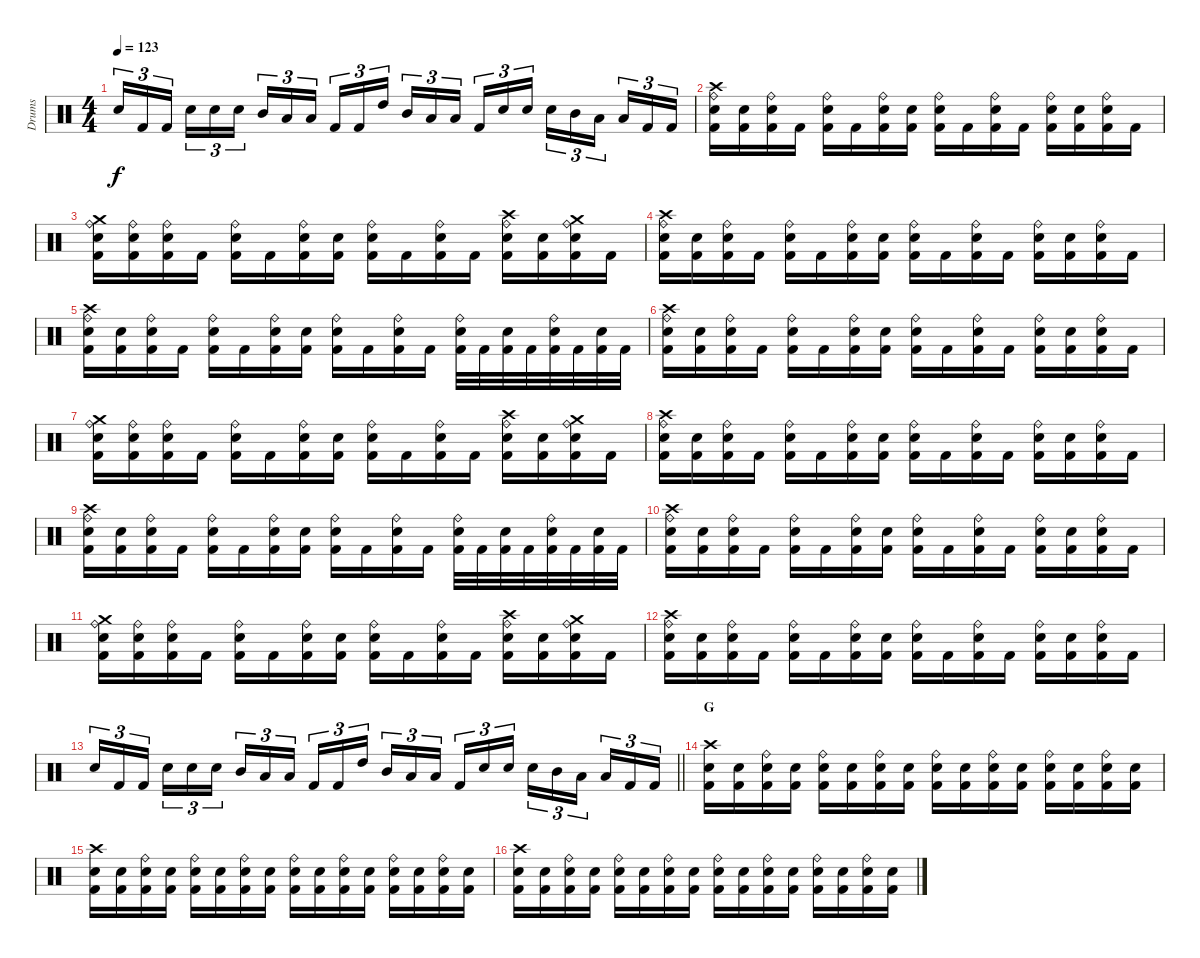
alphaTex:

\track ("Drums" "Drums") {instrument percussion}
\staff {score}
\articulation defaults
\ts (4 4)
\tempo 123
\clef neutral
\ks c "Snare (hit) 2".16{tu (3 2) dy f} "Kick (hit) 2".16{tu (3 2)} "Kick (hit) 2".16{tu (3 2) beam splitsecondary} "Snare (hit) 2".16{tu (3 2)} "Snare (hit) 2".16{tu (3 2)} "Snare (hit) 2".16{tu (3 2)} "Mid Tom (hit)".16{tu (3 2)} "Low Tom (hit)".16{tu (3 2)} "Low Floor Tom (hit)".16{tu (3 2) beam splitsecondary} "Kick (hit) 2".16{tu (3 2)} "Kick (hit) 2".16{tu (3 2)} "High Tom (hit)".16{tu (3 2)} "Mid Tom (hit)".16{tu (3 2)} "Low Tom (hit)".16{tu (3 2)} "Low Floor Tom (hit)".16{tu (3 2) beam splitsecondary} "Kick (hit) 2".16{tu (3 2)} "Snare (hit) 2".16{tu (3 2)} "Snare (hit) 2".16{tu (3 2)} "Snare (hit) 2".16{tu (3 2)} "Mid Tom (hit)".16{tu (3 2)} "Low Tom (hit)".16{tu (3 2) beam splitsecondary} "Low Floor Tom (hit)".16{tu (3 2)} "Kick (hit) 2".16{tu (3 2)} "Kick (hit) 2".16{tu (3 2)}
|
("Crash high (hit)" "Snare (hit) 2" "Ride (bell)" "Kick (hit) 2").16 ("Snare (hit) 2" "Kick (hit) 2").16 ("Snare (hit) 2" "Ride (bell)" "Kick (hit) 2").16 "Kick (hit) 2".16 ("Snare (hit) 2" "Ride (bell)" "Kick (hit) 2").16 "Kick (hit) 2".16 ("Snare (hit) 2" "Ride (bell)" "Kick (hit) 2").16 ("Snare (hit) 2" "Kick (hit) 2").16 ("Snare (hit) 2" "Ride (bell)" "Kick (hit) 2").16 "Kick (hit) 2".16 ("Snare (hit) 2" "Ride (bell)" "Kick (hit) 2").16 "Kick (hit) 2".16 ("Snare (hit) 2" "Ride (bell)" "Kick (hit) 2").16 ("Snare (hit) 2" "Kick (hit) 2").16 ("Snare (hit) 2" "Ride (bell)" "Kick (hit) 2").16 "Kick (hit) 2".16 |
("Crash medium (hit)" "Snare (hit) 2" "Ride (bell)" "Kick (hit) 2").16 ("Snare (hit) 2" "Ride (bell)" "Kick (hit) 2").16 ("Snare (hit) 2" "Ride (bell)" "Kick (hit) 2").16 "Kick (hit) 2".16 ("Snare (hit) 2" "Ride (bell)" "Kick (hit) 2").16 "Kick (hit) 2".16 ("Snare (hit) 2" "Ride (bell)" "Kick (hit) 2").16 ("Snare (hit) 2" "Kick (hit) 2").16 ("Snare (hit) 2" "Ride (bell)" "Kick (hit) 2").16 "Kick (hit) 2".16 ("Snare (hit) 2" "Ride (bell)" "Kick (hit) 2").16 "Kick (hit) 2".16 ("Crash high (hit)" "Snare (hit) 2" "Ride (bell)" "Kick (hit) 2").16 ("Snare (hit) 2" "Kick (hit) 2").16 ("Crash medium (hit)" "Snare (hit) 2" "Ride (bell)" "Kick (hit) 2").16 "Kick (hit) 2".16 |
("Crash high (hit)" "Snare (hit) 2" "Ride (bell)" "Kick (hit) 2").16 ("Snare (hit) 2" "Kick (hit) 2").16 ("Snare (hit) 2" "Ride (bell)" "Kick (hit) 2").16 "Kick (hit) 2".16 ("Snare (hit) 2" "Ride (bell)" "Kick (hit) 2").16 "Kick (hit) 2".16 ("Snare (hit) 2" "Ride (bell)" "Kick (hit) 2").16 ("Snare (hit) 2" "Kick (hit) 2").16 ("Snare (hit) 2" "Ride (bell)" "Kick (hit) 2").16 "Kick (hit) 2".16 ("Snare (hit) 2" "Ride (bell)" "Kick (hit) 2").16 "Kick (hit) 2".16 ("Snare (hit) 2" "Ride (bell)" "Kick (hit) 2").16 ("Snare (hit) 2" "Kick (hit) 2").16 ("Snare (hit) 2" "Ride (bell)" "Kick (hit) 2").16 "Kick (hit) 2".16 |
("Crash high (hit)" "Snare (hit) 2" "Ride (bell)" "Kick (hit) 2").16 ("Snare (hit) 2" "Kick (hit) 2").16 ("Snare (hit) 2" "Ride (bell)" "Kick (hit) 2").16 "Kick (hit) 2".16 ("Snare (hit) 2" "Ride (bell)" "Kick (hit) 2").16 "Kick (hit) 2".16 ("Snare (hit) 2" "Ride (bell)" "Kick (hit) 2").16 ("Snare (hit) 2" "Kick (hit) 2").16 ("Snare (hit) 2" "Ride (bell)" "Kick (hit) 2").16 "Kick (hit) 2".16 ("Snare (hit) 2" "Ride (bell)" "Kick (hit) 2").16 "Kick (hit) 2".16 ("Snare (hit) 2" "Ride (bell)" "Kick (hit) 2").32 "Kick (hit) 2".32 ("Snare (hit) 2" "Kick (hit) 2").32 "Kick (hit) 2".32 ("Snare (hit) 2" "Ride (bell)" "Kick (hit) 2").32 "Kick (hit) 2".32 ("Snare (hit) 2" "Kick (hit) 2").32 "Kick (hit) 2".32 |
("Crash high (hit)" "Snare (hit) 2" "Ride (bell)" "Kick (hit) 2").16 ("Snare (hit) 2" "Kick (hit) 2").16 ("Snare (hit) 2" "Ride (bell)" "Kick (hit) 2").16 "Kick (hit) 2".16 ("Snare (hit) 2" "Ride (bell)" "Kick (hit) 2").16 "Kick (hit) 2".16 ("Snare (hit) 2" "Ride (bell)" "Kick (hit) 2").16 ("Snare (hit) 2" "Kick (hit) 2").16 ("Snare (hit) 2" "Ride (bell)" "Kick (hit) 2").16 "Kick (hit) 2".16 ("Snare (hit) 2" "Ride (bell)" "Kick (hit) 2").16 "Kick (hit) 2".16 ("Snare (hit) 2" "Ride (bell)" "Kick (hit) 2").16 ("Snare (hit) 2" "Kick (hit) 2").16 ("Snare (hit) 2" "Ride (bell)" "Kick (hit) 2").16 "Kick (hit) 2".16 |
("Crash medium (hit)" "Snare (hit) 2" "Ride (bell)" "Kick (hit) 2").16 ("Snare (hit) 2" "Ride (bell)" "Kick (hit) 2").16 ("Snare (hit) 2" "Ride (bell)" "Kick (hit) 2").16 "Kick (hit) 2".16 ("Snare (hit) 2" "Ride (bell)" "Kick (hit) 2").16 "Kick (hit) 2".16 ("Snare (hit) 2" "Ride (bell)" "Kick (hit) 2").16 ("Snare (hit) 2" "Kick (hit) 2").16 ("Snare (hit) 2" "Ride (bell)" "Kick (hit) 2").16 "Kick (hit) 2".16 ("Snare (hit) 2" "Ride (bell)" "Kick (hit) 2").16 "Kick (hit) 2".16 ("Crash high (hit)" "Snare (hit) 2" "Ride (bell)" "Kick (hit) 2").16 ("Snare (hit) 2" "Kick (hit) 2").16 ("Crash medium (hit)" "Snare (hit) 2" "Ride (bell)" "Kick (hit) 2").16 "Kick (hit) 2".16 |
("Crash high (hit)" "Snare (hit) 2" "Ride (bell)" "Kick (hit) 2").16 ("Snare (hit) 2" "Kick (hit) 2").16 ("Snare (hit) 2" "Ride (bell)" "Kick (hit) 2").16 "Kick (hit) 2".16 ("Snare (hit) 2" "Ride (bell)" "Kick (hit) 2").16 "Kick (hit) 2".16 ("Snare (hit) 2" "Ride (bell)" "Kick (hit) 2").16 ("Snare (hit) 2" "Kick (hit) 2").16 ("Snare (hit) 2" "Ride (bell)" "Kick (hit) 2").16 "Kick (hit) 2".16 ("Snare (hit) 2" "Ride (bell)" "Kick (hit) 2").16 "Kick (hit) 2".16 ("Snare (hit) 2" "Ride (bell)" "Kick (hit) 2").16 ("Snare (hit) 2" "Kick (hit) 2").16 ("Snare (hit) 2" "Ride (bell)" "Kick (hit) 2").16 "Kick (hit) 2".16 |
("Crash high (hit)" "Snare (hit) 2" "Ride (bell)" "Kick (hit) 2").16 ("Snare (hit) 2" "Kick (hit) 2").16 ("Snare (hit) 2" "Ride (bell)" "Kick (hit) 2").16 "Kick (hit) 2".16 ("Snare (hit) 2" "Ride (bell)" "Kick (hit) 2").16 "Kick (hit) 2".16 ("Snare (hit) 2" "Ride (bell)" "Kick (hit) 2").16 ("Snare (hit) 2" "Kick (hit) 2").16 ("Snare (hit) 2" "Ride (bell)" "Kick (hit) 2").16 "Kick (hit) 2".16 ("Snare (hit) 2" "Ride (bell)" "Kick (hit) 2").16 "Kick (hit) 2".16 ("Snare (hit) 2" "Ride (bell)" "Kick (hit) 2").32 "Kick (hit) 2".32 ("Snare (hit) 2" "Kick (hit) 2").32 "Kick (hit) 2".32 ("Snare (hit) 2" "Ride (bell)" "Kick (hit) 2").32 "Kick (hit) 2".32 ("Snare (hit) 2" "Kick (hit) 2").32 "Kick (hit) 2".32 |
("Crash high (hit)" "Snare (hit) 2" "Ride (bell)" "Kick (hit) 2").16 ("Snare (hit) 2" "Kick (hit) 2").16 ("Snare (hit) 2" "Ride (bell)" "Kick (hit) 2").16 "Kick (hit) 2".16 ("Snare (hit) 2" "Ride (bell)" "Kick (hit) 2").16 "Kick (hit) 2".16 ("Snare (hit) 2" "Ride (bell)" "Kick (hit) 2").16 ("Snare (hit) 2" "Kick (hit) 2").16 ("Snare (hit) 2" "Ride (bell)" "Kick (hit) 2").16 "Kick (hit) 2".16 ("Snare (hit) 2" "Ride (bell)" "Kick (hit) 2").16 "Kick (hit) 2".16 ("Snare (hit) 2" "Ride (bell)" "Kick (hit) 2").16 ("Snare (hit) 2" "Kick (hit) 2").16 ("Snare (hit) 2" "Ride (bell)" "Kick (hit) 2").16 "Kick (hit) 2".16 |
("Crash medium (hit)" "Snare (hit) 2" "Ride (bell)" "Kick (hit) 2").16 ("Snare (hit) 2" "Ride (bell)" "Kick (hit) 2").16 ("Snare (hit) 2" "Ride (bell)" "Kick (hit) 2").16 "Kick (hit) 2".16 ("Snare (hit) 2" "Ride (bell)" "Kick (hit) 2").16 "Kick (hit) 2".16 ("Snare (hit) 2" "Ride (bell)" "Kick (hit) 2").16 ("Snare (hit) 2" "Kick (hit) 2").16 ("Snare (hit) 2" "Ride (bell)" "Kick (hit) 2").16 "Kick (hit) 2".16 ("Snare (hit) 2" "Ride (bell)" "Kick (hit) 2").16 "Kick (hit) 2".16 ("Crash high (hit)" "Snare (hit) 2" "Ride (bell)" "Kick (hit) 2").16 ("Snare (hit) 2" "Kick (hit) 2").16 ("Crash medium (hit)" "Snare (hit) 2" "Ride (bell)" "Kick (hit) 2").16 "Kick (hit) 2".16 |
("Crash high (hit)" "Snare (hit) 2" "Ride (bell)" "Kick (hit) 2").16 ("Snare (hit) 2" "Kick (hit) 2").16 ("Snare (hit) 2" "Ride (bell)" "Kick (hit) 2").16 "Kick (hit) 2".16 ("Snare (hit) 2" "Ride (bell)" "Kick (hit) 2").16 "Kick (hit) 2".16 ("Snare (hit) 2" "Ride (bell)" "Kick (hit) 2").16 ("Snare (hit) 2" "Kick (hit) 2").16 ("Snare (hit) 2" "Ride (bell)" "Kick (hit) 2").16 "Kick (hit) 2".16 ("Snare (hit) 2" "Ride (bell)" "Kick (hit) 2").16 "Kick (hit) 2".16 ("Snare (hit) 2" "Ride (bell)" "Kick (hit) 2").16 ("Snare (hit) 2" "Kick (hit) 2").16 ("Snare (hit) 2" "Ride (bell)" "Kick (hit) 2").16 "Kick (hit) 2".16 |
\barLineRight lightlight "Snare (hit) 2".16{tu (3 2)} "Kick (hit) 2".16{tu (3 2)} "Kick (hit) 2".16{tu (3 2) beam splitsecondary} "Snare (hit) 2".16{tu (3 2)} "Snare (hit) 2".16{tu (3 2)} "Snare (hit) 2".16{tu (3 2)} "Mid Tom (hit)".16{tu (3 2)} "Low Tom (hit)".16{tu (3 2)} "Low Floor Tom (hit)".16{tu (3 2) beam splitsecondary} "Kick (hit) 2".16{tu (3 2)} "Kick (hit) 2".16{tu (3 2)} "High Tom (hit)".16{tu (3 2)} "Mid Tom (hit)".16{tu (3 2)} "Low Tom (hit)".16{tu (3 2)} "Low Floor Tom (hit)".16{tu (3 2) beam splitsecondary} "Kick (hit) 2".16{tu (3 2)} "Snare (hit) 2".16{tu (3 2)} "Snare (hit) 2".16{tu (3 2)} "Snare (hit) 2".16{tu (3 2)} "Mid Tom (hit)".16{tu (3 2)} "Low Tom (hit)".16{tu (3 2) beam splitsecondary} "Low Floor Tom (hit)".16{tu (3 2)} "Kick (hit) 2".16{tu (3 2)} "Kick (hit) 2".16{tu (3 2)}
|
\section ("" "G")
("Crash high (hit)" "Snare (hit) 2" "Kick (hit) 2").16 ("Snare (hit) 2" "Kick (hit) 2").16 ("Ride (bell)" "Snare (hit) 2" "Kick (hit) 2").16 ("Snare (hit) 2" "Kick (hit) 2").16 ("Ride (bell)" "Snare (hit) 2" "Kick (hit) 2").16 ("Snare (hit) 2" "Kick (hit) 2").16 ("Ride (bell)" "Snare (hit) 2" "Kick (hit) 2").16 ("Snare (hit) 2" "Kick (hit) 2").16 ("Ride (bell)" "Snare (hit) 2" "Kick (hit) 2").16 ("Snare (hit) 2" "Kick (hit) 2").16 ("Ride (bell)" "Snare (hit) 2" "Kick (hit) 2").16 ("Snare (hit) 2" "Kick (hit) 2").16 ("Ride (bell)" "Snare (hit) 2" "Kick (hit) 2").16 ("Snare (hit) 2" "Kick (hit) 2").16 ("Ride (bell)" "Snare (hit) 2" "Kick (hit) 2").16 ("Snare (hit) 2" "Kick (hit) 2").16 |
("Crash high (hit)" "Snare (hit) 2" "Kick (hit) 2").16 ("Snare (hit) 2" "Kick (hit) 2").16 ("Ride (bell)" "Snare (hit) 2" "Kick (hit) 2").16 ("Snare (hit) 2" "Kick (hit) 2").16 ("Ride (bell)" "Snare (hit) 2" "Kick (hit) 2").16 ("Snare (hit) 2" "Kick (hit) 2").16 ("Ride (bell)" "Snare (hit) 2" "Kick (hit) 2").16 ("Snare (hit) 2" "Kick (hit) 2").16 ("Ride (bell)" "Snare (hit) 2" "Kick (hit) 2").16 ("Snare (hit) 2" "Kick (hit) 2").16 ("Ride (bell)" "Snare (hit) 2" "Kick (hit) 2").16 ("Snare (hit) 2" "Kick (hit) 2").16 ("Ride (bell)" "Snare (hit) 2" "Kick (hit) 2").16 ("Snare (hit) 2" "Kick (hit) 2").16 ("Ride (bell)" "Snare (hit) 2" "Kick (hit) 2").16 ("Snare (hit) 2" "Kick (hit) 2").16 |
("Crash high (hit)" "Snare (hit) 2" "Kick (hit) 2").16 ("Snare (hit) 2" "Kick (hit) 2").16 ("Ride (bell)" "Snare (hit) 2" "Kick (hit) 2").16 ("Snare (hit) 2" "Kick (hit) 2").16 ("Ride (bell)" "Snare (hit) 2" "Kick (hit) 2").16 ("Snare (hit) 2" "Kick (hit) 2").16 ("Ride (bell)" "Snare (hit) 2" "Kick (hit) 2").16 ("Snare (hit) 2" "Kick (hit) 2").16 ("Ride (bell)" "Snare (hit) 2" "Kick (hit) 2").16 ("Snare (hit) 2" "Kick (hit) 2").16 ("Ride (bell)" "Snare (hit) 2" "Kick (hit) 2").16 ("Snare (hit) 2" "Kick (hit) 2").16 ("Ride (bell)" "Snare (hit) 2" "Kick (hit) 2").16 ("Snare (hit) 2" "Kick (hit) 2").16 ("Ride (bell)" "Snare (hit) 2" "Kick (hit) 2").16 ("Snare (hit) 2" "Kick (hit) 2").16
